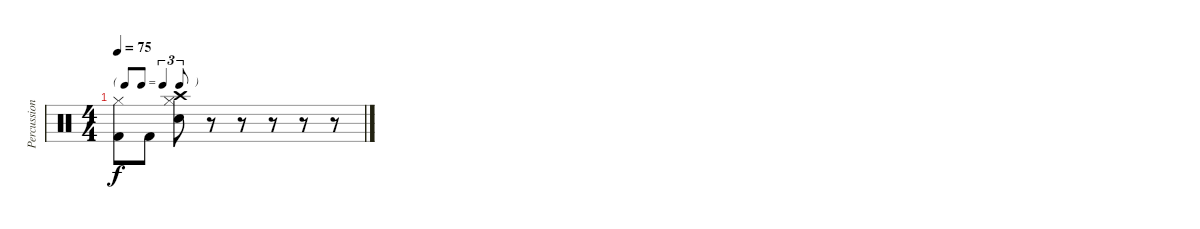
\track ("Percussions" "Percussion") {instrument percussion}
\staff {score}
\articulation defaults
\ts (4 4)
\tf triplet8th
\tempo 75
\clef neutral
\ks c
("Hi-Hat (closed)" "Kick (hit) 2").8{dy f} "Kick (hit) 2".8 ("Hi-Hat (closed)" "Crash high (hit)" "Snare (hit) 2").8 r.8 r.8 r.8 r.8 r.8
